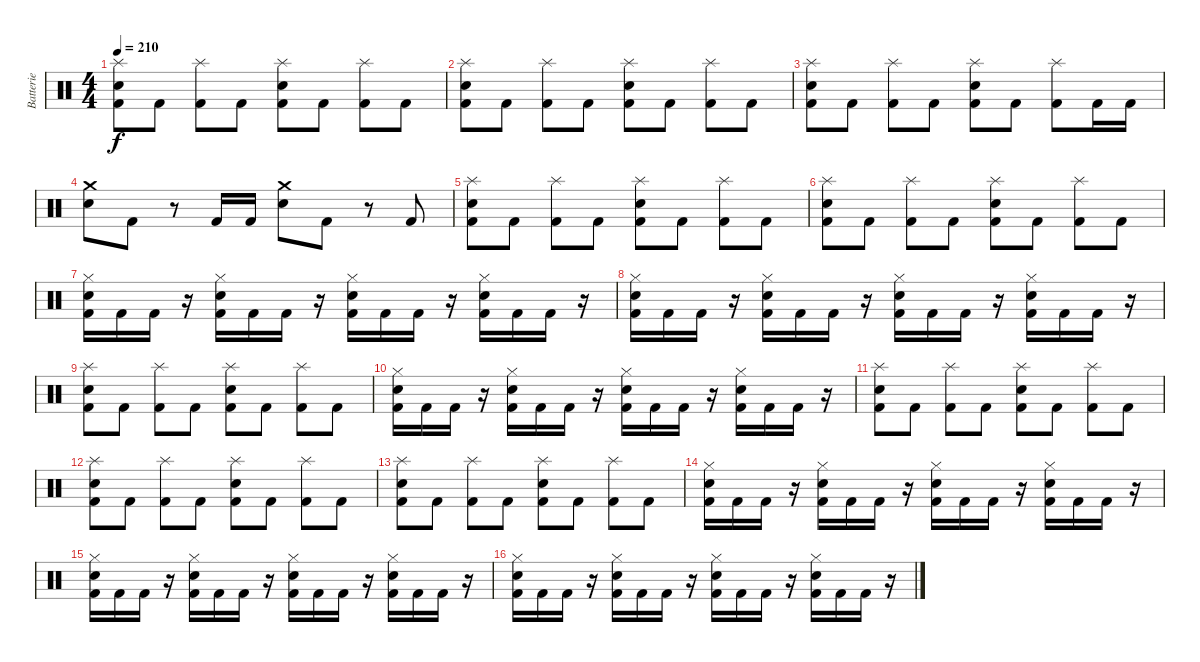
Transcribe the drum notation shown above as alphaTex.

\track ("Batterie" "Batterie") {instrument percussion}
\staff {score}
\articulation defaults
\ts (4 4)
\tempo 210
\clef neutral
\ks c
("Splash (hit)" "Electric Snare (hit)" "Kick (hit) 2").8{dy f} "Kick (hit) 2".8 ("Splash (hit)" "Kick (hit) 2").8 "Kick (hit) 2".8 ("Splash (hit)" "Electric Snare (hit)" "Kick (hit) 2").8 "Kick (hit) 2".8 ("Splash (hit)" "Kick (hit) 2").8 "Kick (hit) 2".8 |
("Splash (hit)" "Electric Snare (hit)" "Kick (hit) 2").8 "Kick (hit) 2".8 ("Splash (hit)" "Kick (hit) 2").8 "Kick (hit) 2".8 ("Splash (hit)" "Electric Snare (hit)" "Kick (hit) 2").8 "Kick (hit) 2".8 ("Splash (hit)" "Kick (hit) 2").8 "Kick (hit) 2".8 |
("Splash (hit)" "Electric Snare (hit)" "Kick (hit) 2").8 "Kick (hit) 2".8 ("Splash (hit)" "Kick (hit) 2").8 "Kick (hit) 2".8 ("Splash (hit)" "Electric Snare (hit)" "Kick (hit) 2").8 "Kick (hit) 2".8 ("Splash (hit)" "Kick (hit) 2").8 "Kick (hit) 2".16 "Kick (hit) 2".16 |
("Crash medium (hit)" "Electric Snare (hit)").8 "Kick (hit) 2".8 r.8 "Kick (hit) 2".16 "Kick (hit) 2".16 ("Crash medium (hit)" "Electric Snare (hit)").8 "Kick (hit) 2".8 r.8 "Kick (hit) 2".8 |
("Splash (hit)" "Electric Snare (hit)" "Kick (hit) 2").8 "Kick (hit) 2".8 ("Splash (hit)" "Kick (hit) 2").8 "Kick (hit) 2".8 ("Splash (hit)" "Electric Snare (hit)" "Kick (hit) 2").8 "Kick (hit) 2".8 ("Splash (hit)" "Kick (hit) 2").8 "Kick (hit) 2".8 |
("Splash (hit)" "Electric Snare (hit)" "Kick (hit) 2").8 "Kick (hit) 2".8 ("Splash (hit)" "Kick (hit) 2").8 "Kick (hit) 2".8 ("Splash (hit)" "Electric Snare (hit)" "Kick (hit) 2").8 "Kick (hit) 2".8 ("Splash (hit)" "Kick (hit) 2").8 "Kick (hit) 2".8 |
("Hi-Hat (closed)" "Electric Snare (hit)" "Kick (hit) 2").16 "Kick (hit) 2".16 "Kick (hit) 2".16 r.16 ("Hi-Hat (closed)" "Electric Snare (hit)" "Kick (hit) 2").16 "Kick (hit) 2".16 "Kick (hit) 2".16 r.16 ("Hi-Hat (closed)" "Electric Snare (hit)" "Kick (hit) 2").16 "Kick (hit) 2".16 "Kick (hit) 2".16 r.16 ("Hi-Hat (closed)" "Electric Snare (hit)" "Kick (hit) 2").16 "Kick (hit) 2".16 "Kick (hit) 2".16 r.16 |
("Hi-Hat (closed)" "Electric Snare (hit)" "Kick (hit) 2").16 "Kick (hit) 2".16 "Kick (hit) 2".16 r.16 ("Hi-Hat (closed)" "Electric Snare (hit)" "Kick (hit) 2").16 "Kick (hit) 2".16 "Kick (hit) 2".16 r.16 ("Hi-Hat (closed)" "Electric Snare (hit)" "Kick (hit) 2").16 "Kick (hit) 2".16 "Kick (hit) 2".16 r.16 ("Hi-Hat (closed)" "Electric Snare (hit)" "Kick (hit) 2").16 "Kick (hit) 2".16 "Kick (hit) 2".16 r.16 |
("Splash (hit)" "Electric Snare (hit)" "Kick (hit) 2").8 "Kick (hit) 2".8 ("Splash (hit)" "Kick (hit) 2").8 "Kick (hit) 2".8 ("Splash (hit)" "Electric Snare (hit)" "Kick (hit) 2").8 "Kick (hit) 2".8 ("Splash (hit)" "Kick (hit) 2").8 "Kick (hit) 2".8 |
("Hi-Hat (closed)" "Electric Snare (hit)" "Kick (hit) 2").16 "Kick (hit) 2".16 "Kick (hit) 2".16 r.16 ("Hi-Hat (closed)" "Electric Snare (hit)" "Kick (hit) 2").16 "Kick (hit) 2".16 "Kick (hit) 2".16 r.16 ("Hi-Hat (closed)" "Electric Snare (hit)" "Kick (hit) 2").16 "Kick (hit) 2".16 "Kick (hit) 2".16 r.16 ("Hi-Hat (closed)" "Electric Snare (hit)" "Kick (hit) 2").16 "Kick (hit) 2".16 "Kick (hit) 2".16 r.16 |
("Splash (hit)" "Electric Snare (hit)" "Kick (hit) 2").8 "Kick (hit) 2".8 ("Splash (hit)" "Kick (hit) 2").8 "Kick (hit) 2".8 ("Splash (hit)" "Electric Snare (hit)" "Kick (hit) 2").8 "Kick (hit) 2".8 ("Splash (hit)" "Kick (hit) 2").8 "Kick (hit) 2".8 |
("Splash (hit)" "Electric Snare (hit)" "Kick (hit) 2").8 "Kick (hit) 2".8 ("Splash (hit)" "Kick (hit) 2").8 "Kick (hit) 2".8 ("Splash (hit)" "Electric Snare (hit)" "Kick (hit) 2").8 "Kick (hit) 2".8 ("Splash (hit)" "Kick (hit) 2").8 "Kick (hit) 2".8 |
("Splash (hit)" "Electric Snare (hit)" "Kick (hit) 2").8 "Kick (hit) 2".8 ("Splash (hit)" "Kick (hit) 2").8 "Kick (hit) 2".8 ("Splash (hit)" "Electric Snare (hit)" "Kick (hit) 2").8 "Kick (hit) 2".8 ("Splash (hit)" "Kick (hit) 2").8 "Kick (hit) 2".8 |
("Hi-Hat (closed)" "Electric Snare (hit)" "Kick (hit) 2").16 "Kick (hit) 2".16 "Kick (hit) 2".16 r.16 ("Hi-Hat (closed)" "Electric Snare (hit)" "Kick (hit) 2").16 "Kick (hit) 2".16 "Kick (hit) 2".16 r.16 ("Hi-Hat (closed)" "Electric Snare (hit)" "Kick (hit) 2").16 "Kick (hit) 2".16 "Kick (hit) 2".16 r.16 ("Hi-Hat (closed)" "Electric Snare (hit)" "Kick (hit) 2").16 "Kick (hit) 2".16 "Kick (hit) 2".16 r.16 |
("Hi-Hat (closed)" "Electric Snare (hit)" "Kick (hit) 2").16 "Kick (hit) 2".16 "Kick (hit) 2".16 r.16 ("Hi-Hat (closed)" "Electric Snare (hit)" "Kick (hit) 2").16 "Kick (hit) 2".16 "Kick (hit) 2".16 r.16 ("Hi-Hat (closed)" "Electric Snare (hit)" "Kick (hit) 2").16 "Kick (hit) 2".16 "Kick (hit) 2".16 r.16 ("Hi-Hat (closed)" "Electric Snare (hit)" "Kick (hit) 2").16 "Kick (hit) 2".16 "Kick (hit) 2".16 r.16 |
("Hi-Hat (closed)" "Electric Snare (hit)" "Kick (hit) 2").16 "Kick (hit) 2".16 "Kick (hit) 2".16 r.16 ("Hi-Hat (closed)" "Electric Snare (hit)" "Kick (hit) 2").16 "Kick (hit) 2".16 "Kick (hit) 2".16 r.16 ("Hi-Hat (closed)" "Electric Snare (hit)" "Kick (hit) 2").16 "Kick (hit) 2".16 "Kick (hit) 2".16 r.16 ("Hi-Hat (closed)" "Electric Snare (hit)" "Kick (hit) 2").16 "Kick (hit) 2".16 "Kick (hit) 2".16 r.16
